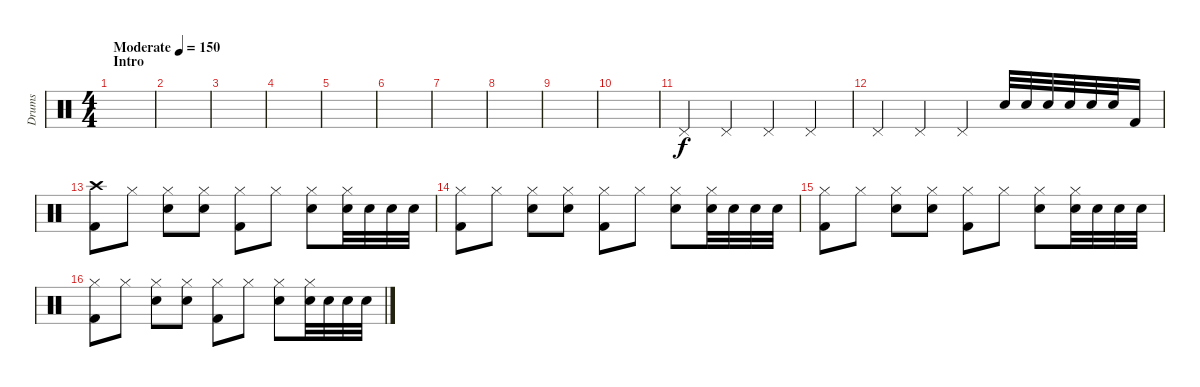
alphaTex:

\track ("Drums" "Drums") {instrument percussion}
\staff {score}
\articulation defaults
\ts (4 4)
\section ("" "Intro")
\tempo (150 "Moderate")
\clef neutral
\ks c
|
|
|
|
|
|
|
|
|
|
"Pedal Hi-Hat (hit)".4 "Pedal Hi-Hat (hit)".4 "Pedal Hi-Hat (hit)".4 "Pedal Hi-Hat (hit)".4 |
"Pedal Hi-Hat (hit)".4 "Pedal Hi-Hat (hit)".4 "Pedal Hi-Hat (hit)".4 "Snare (hit) 2".32 "Snare (hit) 2".32 "Snare (hit) 2".32 "Snare (hit) 2".32 "Snare (hit) 2".32 "Snare (hit) 2".32 "Kick (hit) 2".16 |
("Kick (hit) 2" "Crash high (hit)").8 "Hi-Hat (closed)".8 ("Hi-Hat (closed)" "Snare (hit) 2").8 ("Hi-Hat (closed)" "Snare (hit) 2").8 ("Kick (hit) 2" "Hi-Hat (closed)").8 "Hi-Hat (closed)".8 ("Hi-Hat (closed)" "Snare (hit) 2").8{beam Down} ("Hi-Hat (closed)" "Snare (hit) 2").32{beam Down} "Snare (hit) 2".32{beam Down} "Snare (hit) 2".32{beam Down} "Snare (hit) 2".32{beam Down} |
("Kick (hit) 2" "Hi-Hat (closed)").8 "Hi-Hat (closed)".8 ("Hi-Hat (closed)" "Snare (hit) 2").8 ("Hi-Hat (closed)" "Snare (hit) 2").8 ("Kick (hit) 2" "Hi-Hat (closed)").8 "Hi-Hat (closed)".8 ("Hi-Hat (closed)" "Snare (hit) 2").8 ("Hi-Hat (closed)" "Snare (hit) 2").32 "Snare (hit) 2".32 "Snare (hit) 2".32 "Snare (hit) 2".32 |
("Kick (hit) 2" "Hi-Hat (closed)").8 "Hi-Hat (closed)".8 ("Hi-Hat (closed)" "Snare (hit) 2").8 ("Hi-Hat (closed)" "Snare (hit) 2").8 ("Kick (hit) 2" "Hi-Hat (closed)").8 "Hi-Hat (closed)".8 ("Hi-Hat (closed)" "Snare (hit) 2").8 ("Hi-Hat (closed)" "Snare (hit) 2").32 "Snare (hit) 2".32 "Snare (hit) 2".32 "Snare (hit) 2".32 |
("Kick (hit) 2" "Hi-Hat (closed)").8 "Hi-Hat (closed)".8 ("Hi-Hat (closed)" "Snare (hit) 2").8 ("Hi-Hat (closed)" "Snare (hit) 2").8 ("Kick (hit) 2" "Hi-Hat (closed)").8 "Hi-Hat (closed)".8 ("Hi-Hat (closed)" "Snare (hit) 2").8 ("Hi-Hat (closed)" "Snare (hit) 2").32 "Snare (hit) 2".32 "Snare (hit) 2".32 "Snare (hit) 2".32
